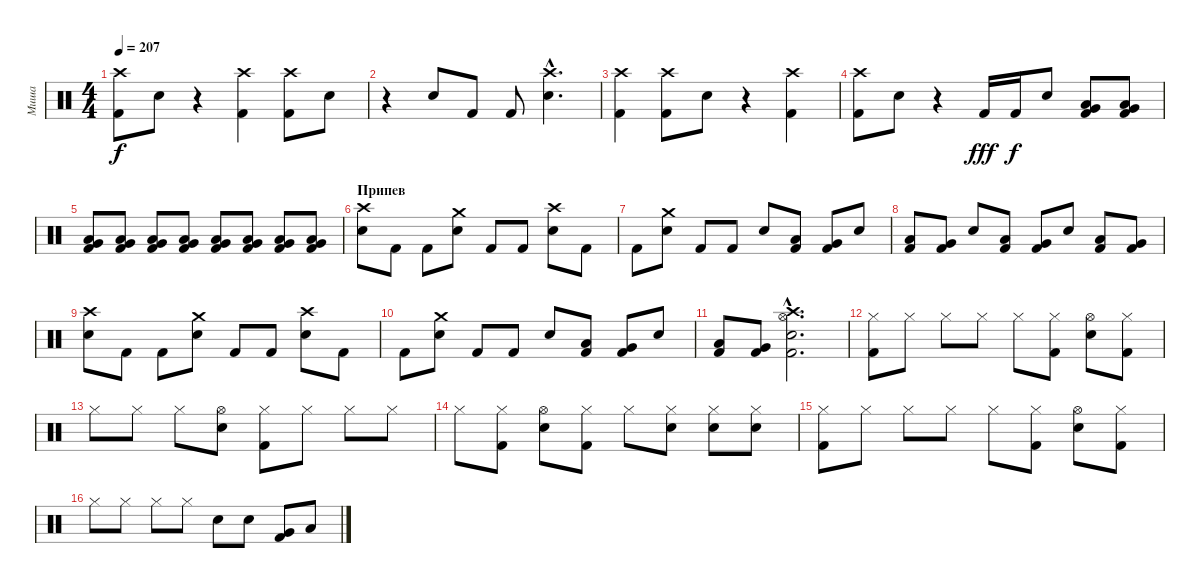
\track ("Миша" "Миша") {instrument percussion}
\staff {score}
\articulation defaults
\ts (4 4)
\tempo 207
\clef neutral
\ks c
("Kick (hit) 2" "Crash high (hit)").8{dy f} "Snare (hit) 2".8 r.4 ("Kick (hit) 2" "Crash high (hit)").4 ("Kick (hit) 2" "Crash high (hit)").8 "Snare (hit) 2".8 |
r.4 "Snare (hit) 2".8 "Kick (hit) 2".8 "Kick (hit) 2".8 ("Snare (hit) 2"{hac} "Crash high (hit)"{hac}).4{d} |
("Kick (hit) 2" "Crash high (hit)").4 ("Kick (hit) 2" "Crash high (hit)").8 "Snare (hit) 2".8 r.4 ("Kick (hit) 2" "Crash high (hit)").4 |
("Kick (hit) 2" "Crash high (hit)").8 "Snare (hit) 2".8 r.4 "Kick (hit) 2".16{dy fff} "Kick (hit) 2".16{dy f} "Snare (hit) 2".8 ("Kick (hit) 2" "Low Tom (hit)" "Very Low Tom (hit)").8 ("Kick (hit) 2" "Low Tom (hit)" "Very Low Tom (hit)").8 |
("Kick (hit) 2" "Low Tom (hit)" "Very Low Tom (hit)").8 ("Kick (hit) 2" "Low Tom (hit)" "Very Low Tom (hit)").8 ("Kick (hit) 2" "Low Tom (hit)" "Very Low Tom (hit)").8 ("Kick (hit) 2" "Low Tom (hit)" "Very Low Tom (hit)").8 ("Kick (hit) 2" "Low Tom (hit)" "Very Low Tom (hit)").8 ("Kick (hit) 2" "Low Tom (hit)" "Very Low Tom (hit)").8 ("Kick (hit) 2" "Low Tom (hit)" "Very Low Tom (hit)").8 ("Kick (hit) 2" "Low Tom (hit)" "Very Low Tom (hit)").8 |
\section ("" "Припев")
("Snare (hit) 2" "Crash high (hit)").8 "Kick (hit) 2".8 "Kick (hit) 2".8 ("Snare (hit) 2" "Crash medium (hit)").8 "Kick (hit) 2".8 "Kick (hit) 2".8 ("Snare (hit) 2" "Crash high (hit)").8 "Kick (hit) 2".8 |
"Kick (hit) 2".8 ("Snare (hit) 2" "Crash medium (hit)").8 "Kick (hit) 2".8 "Kick (hit) 2".8 "Snare (hit) 2".8 ("Kick (hit) 2" "Low Tom (hit)").8 ("Kick (hit) 2" "Very Low Tom (hit)").8 "Snare (hit) 2".8 |
("Kick (hit) 2" "Low Tom (hit)").8 ("Kick (hit) 2" "Very Low Tom (hit)").8 "Snare (hit) 2".8 ("Kick (hit) 2" "Low Tom (hit)").8 ("Kick (hit) 2" "Very Low Tom (hit)").8 "Snare (hit) 2".8 ("Kick (hit) 2" "Low Tom (hit)").8 ("Kick (hit) 2" "Very Low Tom (hit)").8 |
("Snare (hit) 2" "Crash high (hit)").8 "Kick (hit) 2".8 "Kick (hit) 2".8 ("Snare (hit) 2" "Crash medium (hit)").8 "Kick (hit) 2".8 "Kick (hit) 2".8 ("Snare (hit) 2" "Crash high (hit)").8 "Kick (hit) 2".8 |
"Kick (hit) 2".8 ("Snare (hit) 2" "Crash medium (hit)").8 "Kick (hit) 2".8 "Kick (hit) 2".8 "Snare (hit) 2".8 ("Kick (hit) 2" "Low Tom (hit)").8 ("Kick (hit) 2" "Very Low Tom (hit)").8 "Snare (hit) 2".8 |
("Kick (hit) 2" "Low Tom (hit)").8 ("Kick (hit) 2" "Very Low Tom (hit)").8 ("Kick (hit) 2"{hac} "Snare (hit) 2"{hac} "Hi-Hat (open)"{hac} "Crash high (hit)"{hac}).2{d} |
("Kick (hit) 2" "Hi-Hat (closed)").8 "Hi-Hat (closed)".8 "Hi-Hat (closed)".8 "Hi-Hat (closed)".8 "Hi-Hat (closed)".8 ("Kick (hit) 2" "Hi-Hat (closed)").8 ("Snare (hit) 2" "Hi-Hat (open)").8 ("Kick (hit) 2" "Hi-Hat (closed)").8 |
"Hi-Hat (closed)".8 "Hi-Hat (closed)".8 "Hi-Hat (closed)".8 ("Snare (hit) 2" "Hi-Hat (open)").8 ("Kick (hit) 2" "Hi-Hat (closed)").8 "Hi-Hat (closed)".8 "Hi-Hat (closed)".8 "Hi-Hat (closed)".8 |
"Hi-Hat (closed)".8 ("Kick (hit) 2" "Hi-Hat (closed)").8 ("Snare (hit) 2" "Hi-Hat (open)").8 ("Kick (hit) 2" "Hi-Hat (closed)").8 "Hi-Hat (closed)".8 ("Snare (hit) 2" "Hi-Hat (closed)").8 ("Snare (hit) 2" "Hi-Hat (closed)").8 ("Snare (hit) 2" "Hi-Hat (closed)").8 |
("Kick (hit) 2" "Hi-Hat (closed)").8 "Hi-Hat (closed)".8 "Hi-Hat (closed)".8 "Hi-Hat (closed)".8 "Hi-Hat (closed)".8 ("Kick (hit) 2" "Hi-Hat (closed)").8 ("Snare (hit) 2" "Hi-Hat (open)").8 ("Kick (hit) 2" "Hi-Hat (closed)").8 |
"Hi-Hat (closed)".8 "Hi-Hat (closed)".8 "Hi-Hat (closed)".8 "Hi-Hat (closed)".8 "Snare (hit) 2".8 "Snare (hit) 2".8 ("Kick (hit) 2" "Very Low Tom (hit)").8 "Low Tom (hit)".8
